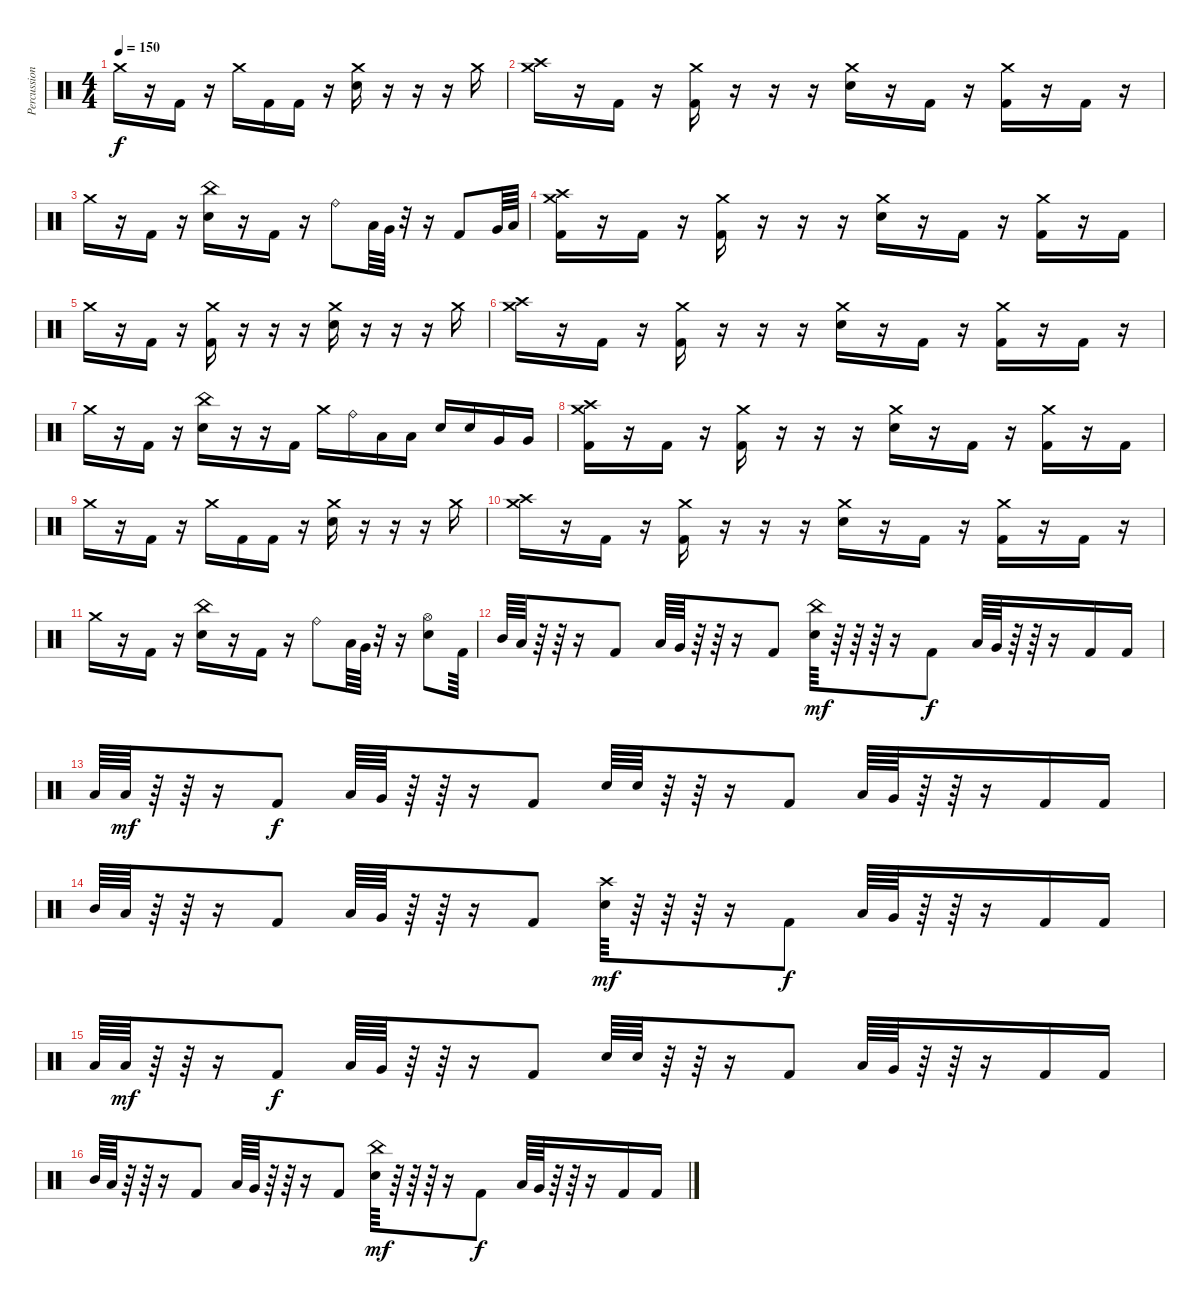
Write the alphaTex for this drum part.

\track ("Percussioni" "Percussion") {instrument percussion}
\staff {score}
\articulation defaults
\ts (4 4)
\tempo 150
\clef neutral
\ks c "Crash medium (hit)".16{dy f}
r.16 "Kick (hit) 2".16 r.16 "Crash medium (hit)".16 "Kick (hit) 2".16 "Kick (hit) 2".16 r.16 ("Crash medium (hit)" "Snare (hit) 2").16 r.16 r.16 r.16 "Crash medium (hit)".16 |
("Crash medium (hit)" "Crash high (hit)").16 r.16 "Kick (hit) 2".16 r.16 ("Kick (hit) 2" "Crash medium (hit)").16 r.16 r.16 r.16 ("Snare (hit) 2" "Crash medium (hit)").16 r.16 "Kick (hit) 2".16 r.16 ("Kick (hit) 2" "Crash medium (hit)").16 r.16 "Kick (hit) 2".16 r.16 |
"Crash medium (hit)".16 r.16 "Kick (hit) 2".16 r.16 ("Snare (hit) 2" "China (hit)").16 r.16 "Kick (hit) 2".16 r.16 "Ride (bell)".8 "Low Tom (hit)".64 "Very Low Tom (hit)".64 r.32 r.16 "Kick (hit) 2".8 "Very Low Tom (hit)".64 "Low Floor Tom (hit)".64 |
("Crash high (hit)" "Kick (hit) 2" "Crash medium (hit)").16 r.16 "Kick (hit) 2".16 r.16 ("Kick (hit) 2" "Crash medium (hit)").16 r.16 r.16 r.16 ("Crash medium (hit)" "Snare (hit) 2").16 r.16 "Kick (hit) 2".16 r.16 ("Kick (hit) 2" "Crash medium (hit)").16 r.16 "Kick (hit) 2".16 |
"Crash medium (hit)".16 r.16 "Kick (hit) 2".16 r.16 ("Kick (hit) 2" "Crash medium (hit)").16 r.16 r.16 r.16 ("Crash medium (hit)" "Snare (hit) 2").16 r.16 r.16 r.16 "Crash medium (hit)".16 |
("Crash medium (hit)" "Crash high (hit)").16 r.16 "Kick (hit) 2".16 r.16 ("Kick (hit) 2" "Crash medium (hit)").16 r.16 r.16 r.16 ("Snare (hit) 2" "Crash medium (hit)").16 r.16 "Kick (hit) 2".16 r.16 ("Kick (hit) 2" "Crash medium (hit)").16 r.16 "Kick (hit) 2".16 r.16 |
"Crash medium (hit)".16 r.16 "Kick (hit) 2".16 r.16 ("Snare (hit) 2" "China (hit)").16 r.16 r.16 "Kick (hit) 2".16 "Crash medium (hit)".16 "Ride (bell)".16 "Low Tom (hit)".16 "Low Tom (hit)".16 "Snare (hit) 2".16 "Snare (hit) 2".16 "Very Low Tom (hit)".16 "Very Low Tom (hit)".16 |
("Crash high (hit)" "Kick (hit) 2" "Crash medium (hit)").16 r.16 "Kick (hit) 2".16 r.16 ("Kick (hit) 2" "Crash medium (hit)").16 r.16 r.16 r.16 ("Crash medium (hit)" "Snare (hit) 2").16 r.16 "Kick (hit) 2".16 r.16 ("Kick (hit) 2" "Crash medium (hit)").16 r.16 "Kick (hit) 2".16 |
"Crash medium (hit)".16 r.16 "Kick (hit) 2".16 r.16 "Crash medium (hit)".16 "Kick (hit) 2".16 "Kick (hit) 2".16 r.16 ("Crash medium (hit)" "Snare (hit) 2").16 r.16 r.16 r.16 "Crash medium (hit)".16 |
("Crash medium (hit)" "Crash high (hit)").16 r.16 "Kick (hit) 2".16 r.16 ("Kick (hit) 2" "Crash medium (hit)").16 r.16 r.16 r.16 ("Snare (hit) 2" "Crash medium (hit)").16 r.16 "Kick (hit) 2".16 r.16 ("Kick (hit) 2" "Crash medium (hit)").16 r.16 "Kick (hit) 2".16 r.16 |
"Crash medium (hit)".16 r.16 "Kick (hit) 2".16 r.16 ("Snare (hit) 2" "China (hit)").16 r.16 "Kick (hit) 2".16 r.16 "Ride (bell)".8 "Low Tom (hit)".64 "Very Low Tom (hit)".64 r.32 r.16 ("Snare (hit) 2" "Hi-Hat (open)").8 "Kick (hit) 2".64 |
"Mid Tom (hit)".64 "Low Tom (hit)".64 r.64 r.64 r.16 "Kick (hit) 2".8 "Low Tom (hit)".64 "Very Low Tom (hit)".64 r.64 r.64 r.16 "Kick (hit) 2".8 ("Snare (hit) 2" "China (hit)").64{dy mf} r.64 r.64 r.64 r.16 "Kick (hit) 2".8{dy f} "Low Tom (hit)".64 "Very Low Tom (hit)".64 r.64 r.64 r.16 "Kick (hit) 2".16 "Kick (hit) 2".16 |
"Low Floor Tom (hit)".64 "Low Floor Tom (hit)".64{dy mf} r.64 r.64 r.16 "Kick (hit) 2".8{dy f} "Low Tom (hit)".64 "Very Low Tom (hit)".64 r.64 r.64 r.16 "Kick (hit) 2".8 "Snare (hit) 2".64 "Snare (hit) 2".64 r.64 r.64 r.16 "Kick (hit) 2".8 "Low Tom (hit)".64 "Very Low Tom (hit)".64 r.64 r.64 r.16 "Kick (hit) 2".16 "Kick (hit) 2".16 |
"Mid Tom (hit)".64 "Low Tom (hit)".64 r.64 r.64 r.16 "Kick (hit) 2".8 "Low Tom (hit)".64 "Very Low Tom (hit)".64 r.64 r.64 r.16 "Kick (hit) 2".8 ("Snare (hit) 2" "Crash high (hit)").64{dy mf} r.64 r.64 r.64 r.16 "Kick (hit) 2".8{dy f} "Low Tom (hit)".64 "Very Low Tom (hit)".64 r.64 r.64 r.16 "Kick (hit) 2".16 "Kick (hit) 2".16 |
"Low Floor Tom (hit)".64 "Low Floor Tom (hit)".64{dy mf} r.64 r.64 r.16 "Kick (hit) 2".8{dy f} "Low Tom (hit)".64 "Very Low Tom (hit)".64 r.64 r.64 r.16 "Kick (hit) 2".8 "Snare (hit) 2".64 "Snare (hit) 2".64 r.64 r.64 r.16 "Kick (hit) 2".8 "Low Tom (hit)".64 "Very Low Tom (hit)".64 r.64 r.64 r.16 "Kick (hit) 2".16 "Kick (hit) 2".16 |
"Mid Tom (hit)".64 "Low Tom (hit)".64 r.64 r.64 r.16 "Kick (hit) 2".8 "Low Tom (hit)".64 "Very Low Tom (hit)".64 r.64 r.64 r.16 "Kick (hit) 2".8 ("Snare (hit) 2" "China (hit)").64{dy mf} r.64 r.64 r.64 r.16 "Kick (hit) 2".8{dy f} "Low Tom (hit)".64 "Very Low Tom (hit)".64 r.64 r.64 r.16 "Kick (hit) 2".16 "Kick (hit) 2".16
